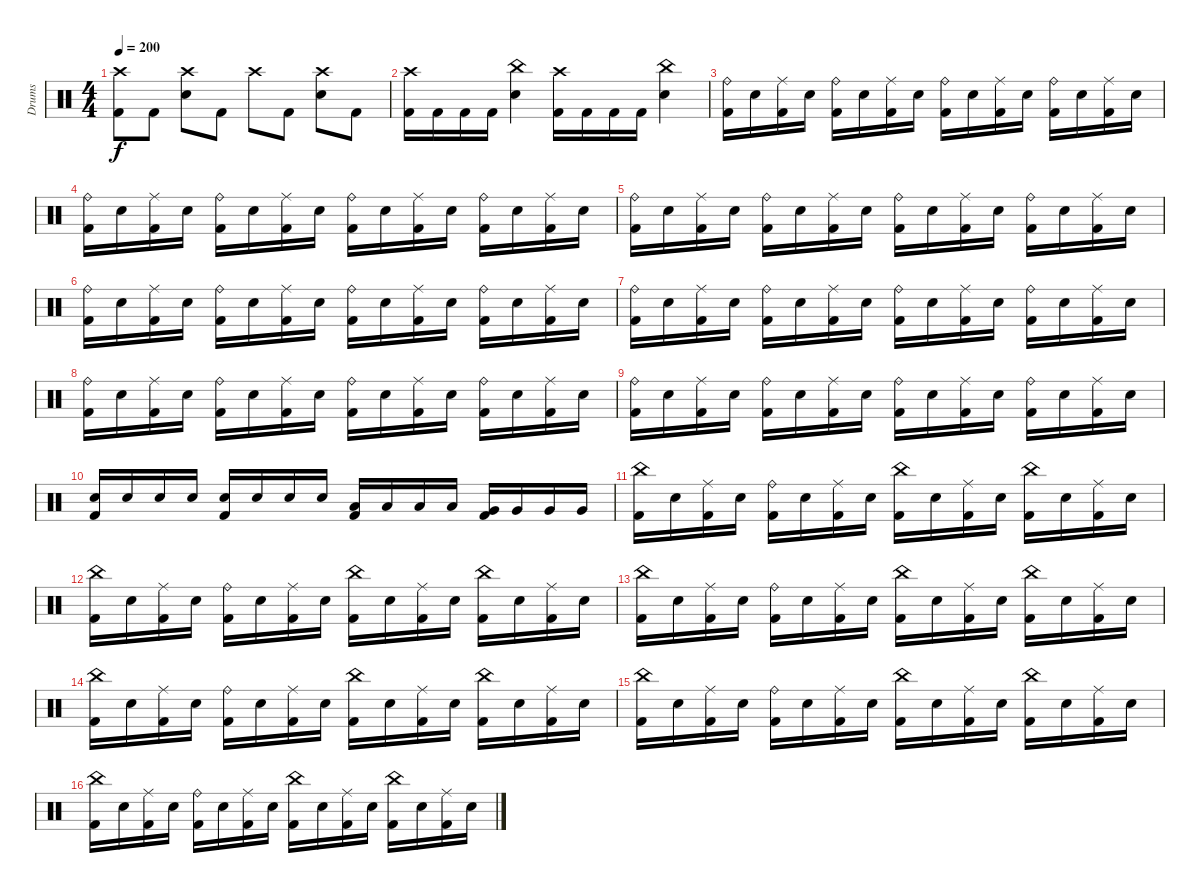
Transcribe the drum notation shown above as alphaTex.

\track ("Drums" "Drums") {instrument percussion}
\staff {score}
\articulation defaults
\ts (4 4)
\tempo 200
\clef neutral
\ks c
("Crash high (hit)" "Kick (hit) 2").8{dy f} "Kick (hit) 2".8 ("Crash high (hit)" "Electric Snare (hit)").8 "Kick (hit) 2".8 "Crash high (hit)".8 "Kick (hit) 2".8 ("Crash high (hit)" "Electric Snare (hit)").8 "Kick (hit) 2".8 |
("Crash high (hit)" "Kick (hit) 2").16 "Kick (hit) 2".16 "Kick (hit) 2".16 "Kick (hit) 2".16 ("China (hit)" "Electric Snare (hit)").4 ("Crash high (hit)" "Kick (hit) 2").16 "Kick (hit) 2".16 "Kick (hit) 2".16 "Kick (hit) 2".16 ("China (hit)" "Electric Snare (hit)").4 |
("Ride (bell)" "Kick (hit) 2").16 "Electric Snare (hit)".16 ("Ride (middle)" "Kick (hit) 2").16 "Electric Snare (hit)".16 ("Ride (bell)" "Kick (hit) 2").16 "Electric Snare (hit)".16 ("Ride (middle)" "Kick (hit) 2").16 "Electric Snare (hit)".16 ("Ride (bell)" "Kick (hit) 2").16 "Electric Snare (hit)".16 ("Ride (middle)" "Kick (hit) 2").16 "Electric Snare (hit)".16 ("Ride (bell)" "Kick (hit) 2").16 "Electric Snare (hit)".16 ("Ride (middle)" "Kick (hit) 2").16 "Electric Snare (hit)".16 |
("Ride (bell)" "Kick (hit) 2").16 "Electric Snare (hit)".16 ("Ride (middle)" "Kick (hit) 2").16 "Electric Snare (hit)".16 ("Ride (bell)" "Kick (hit) 2").16 "Electric Snare (hit)".16 ("Ride (middle)" "Kick (hit) 2").16 "Electric Snare (hit)".16 ("Ride (bell)" "Kick (hit) 2").16 "Electric Snare (hit)".16 ("Ride (middle)" "Kick (hit) 2").16 "Electric Snare (hit)".16 ("Ride (bell)" "Kick (hit) 2").16 "Electric Snare (hit)".16 ("Ride (middle)" "Kick (hit) 2").16 "Electric Snare (hit)".16 |
("Ride (bell)" "Kick (hit) 2").16 "Electric Snare (hit)".16 ("Ride (middle)" "Kick (hit) 2").16 "Electric Snare (hit)".16 ("Ride (bell)" "Kick (hit) 2").16 "Electric Snare (hit)".16 ("Ride (middle)" "Kick (hit) 2").16 "Electric Snare (hit)".16 ("Ride (bell)" "Kick (hit) 2").16 "Electric Snare (hit)".16 ("Ride (middle)" "Kick (hit) 2").16 "Electric Snare (hit)".16 ("Ride (bell)" "Kick (hit) 2").16 "Electric Snare (hit)".16 ("Ride (middle)" "Kick (hit) 2").16 "Electric Snare (hit)".16 |
("Ride (bell)" "Kick (hit) 2").16 "Electric Snare (hit)".16 ("Ride (middle)" "Kick (hit) 2").16 "Electric Snare (hit)".16 ("Ride (bell)" "Kick (hit) 2").16 "Electric Snare (hit)".16 ("Ride (middle)" "Kick (hit) 2").16 "Electric Snare (hit)".16 ("Ride (bell)" "Kick (hit) 2").16 "Electric Snare (hit)".16 ("Ride (middle)" "Kick (hit) 2").16 "Electric Snare (hit)".16 ("Ride (bell)" "Kick (hit) 2").16 "Electric Snare (hit)".16 ("Ride (middle)" "Kick (hit) 2").16 "Electric Snare (hit)".16 |
("Ride (bell)" "Kick (hit) 2").16 "Electric Snare (hit)".16 ("Ride (middle)" "Kick (hit) 2").16 "Electric Snare (hit)".16 ("Ride (bell)" "Kick (hit) 2").16 "Electric Snare (hit)".16 ("Ride (middle)" "Kick (hit) 2").16 "Electric Snare (hit)".16 ("Ride (bell)" "Kick (hit) 2").16 "Electric Snare (hit)".16 ("Ride (middle)" "Kick (hit) 2").16 "Electric Snare (hit)".16 ("Ride (bell)" "Kick (hit) 2").16 "Electric Snare (hit)".16 ("Ride (middle)" "Kick (hit) 2").16 "Electric Snare (hit)".16 |
("Ride (bell)" "Kick (hit) 2").16 "Electric Snare (hit)".16 ("Ride (middle)" "Kick (hit) 2").16 "Electric Snare (hit)".16 ("Ride (bell)" "Kick (hit) 2").16 "Electric Snare (hit)".16 ("Ride (middle)" "Kick (hit) 2").16 "Electric Snare (hit)".16 ("Ride (bell)" "Kick (hit) 2").16 "Electric Snare (hit)".16 ("Ride (middle)" "Kick (hit) 2").16 "Electric Snare (hit)".16 ("Ride (bell)" "Kick (hit) 2").16 "Electric Snare (hit)".16 ("Ride (middle)" "Kick (hit) 2").16 "Electric Snare (hit)".16 |
("Ride (bell)" "Kick (hit) 2").16 "Electric Snare (hit)".16 ("Ride (middle)" "Kick (hit) 2").16 "Electric Snare (hit)".16 ("Ride (bell)" "Kick (hit) 2").16 "Electric Snare (hit)".16 ("Ride (middle)" "Kick (hit) 2").16 "Electric Snare (hit)".16 ("Ride (bell)" "Kick (hit) 2").16 "Electric Snare (hit)".16 ("Ride (middle)" "Kick (hit) 2").16 "Electric Snare (hit)".16 ("Ride (bell)" "Kick (hit) 2").16 "Electric Snare (hit)".16 ("Ride (middle)" "Kick (hit) 2").16 "Electric Snare (hit)".16 |
("Electric Snare (hit)" "Kick (hit) 2").16 "Electric Snare (hit)".16 "Electric Snare (hit)".16 "Electric Snare (hit)".16 ("Electric Snare (hit)" "Kick (hit) 2").16 "Electric Snare (hit)".16 "Electric Snare (hit)".16 "Electric Snare (hit)".16 ("Low Tom (hit)" "Kick (hit) 2").16 "Low Tom (hit)".16 "Low Tom (hit)".16 "Low Tom (hit)".16 ("Very Low Tom (hit)" "Kick (hit) 2").16 "Very Low Tom (hit)".16 "Very Low Tom (hit)".16 "Very Low Tom (hit)".16 |
("China (hit)" "Kick (hit) 2").16 "Electric Snare (hit)".16 ("Ride (middle)" "Kick (hit) 2").16 "Electric Snare (hit)".16 ("Ride (bell)" "Kick (hit) 2").16 "Electric Snare (hit)".16 ("Ride (middle)" "Kick (hit) 2").16 "Electric Snare (hit)".16 ("China (hit)" "Kick (hit) 2").16 "Electric Snare (hit)".16 ("Ride (middle)" "Kick (hit) 2").16 "Electric Snare (hit)".16 ("China (hit)" "Kick (hit) 2").16 "Electric Snare (hit)".16 ("Ride (middle)" "Kick (hit) 2").16 "Electric Snare (hit)".16 |
("China (hit)" "Kick (hit) 2").16 "Electric Snare (hit)".16 ("Ride (middle)" "Kick (hit) 2").16 "Electric Snare (hit)".16 ("Ride (bell)" "Kick (hit) 2").16 "Electric Snare (hit)".16 ("Ride (middle)" "Kick (hit) 2").16 "Electric Snare (hit)".16 ("China (hit)" "Kick (hit) 2").16 "Electric Snare (hit)".16 ("Ride (middle)" "Kick (hit) 2").16 "Electric Snare (hit)".16 ("China (hit)" "Kick (hit) 2").16 "Electric Snare (hit)".16 ("Ride (middle)" "Kick (hit) 2").16 "Electric Snare (hit)".16 |
("China (hit)" "Kick (hit) 2").16 "Electric Snare (hit)".16 ("Ride (middle)" "Kick (hit) 2").16 "Electric Snare (hit)".16 ("Ride (bell)" "Kick (hit) 2").16 "Electric Snare (hit)".16 ("Ride (middle)" "Kick (hit) 2").16 "Electric Snare (hit)".16 ("China (hit)" "Kick (hit) 2").16 "Electric Snare (hit)".16 ("Ride (middle)" "Kick (hit) 2").16 "Electric Snare (hit)".16 ("China (hit)" "Kick (hit) 2").16 "Electric Snare (hit)".16 ("Ride (middle)" "Kick (hit) 2").16 "Electric Snare (hit)".16 |
("China (hit)" "Kick (hit) 2").16 "Electric Snare (hit)".16 ("Ride (middle)" "Kick (hit) 2").16 "Electric Snare (hit)".16 ("Ride (bell)" "Kick (hit) 2").16 "Electric Snare (hit)".16 ("Ride (middle)" "Kick (hit) 2").16 "Electric Snare (hit)".16 ("China (hit)" "Kick (hit) 2").16 "Electric Snare (hit)".16 ("Ride (middle)" "Kick (hit) 2").16 "Electric Snare (hit)".16 ("China (hit)" "Kick (hit) 2").16 "Electric Snare (hit)".16 ("Ride (middle)" "Kick (hit) 2").16 "Electric Snare (hit)".16 |
("China (hit)" "Kick (hit) 2").16 "Electric Snare (hit)".16 ("Ride (middle)" "Kick (hit) 2").16 "Electric Snare (hit)".16 ("Ride (bell)" "Kick (hit) 2").16 "Electric Snare (hit)".16 ("Ride (middle)" "Kick (hit) 2").16 "Electric Snare (hit)".16 ("China (hit)" "Kick (hit) 2").16 "Electric Snare (hit)".16 ("Ride (middle)" "Kick (hit) 2").16 "Electric Snare (hit)".16 ("China (hit)" "Kick (hit) 2").16 "Electric Snare (hit)".16 ("Ride (middle)" "Kick (hit) 2").16 "Electric Snare (hit)".16 |
("China (hit)" "Kick (hit) 2").16 "Electric Snare (hit)".16 ("Ride (middle)" "Kick (hit) 2").16 "Electric Snare (hit)".16 ("Ride (bell)" "Kick (hit) 2").16 "Electric Snare (hit)".16 ("Ride (middle)" "Kick (hit) 2").16 "Electric Snare (hit)".16 ("China (hit)" "Kick (hit) 2").16 "Electric Snare (hit)".16 ("Ride (middle)" "Kick (hit) 2").16 "Electric Snare (hit)".16 ("China (hit)" "Kick (hit) 2").16 "Electric Snare (hit)".16 ("Ride (middle)" "Kick (hit) 2").16 "Electric Snare (hit)".16
